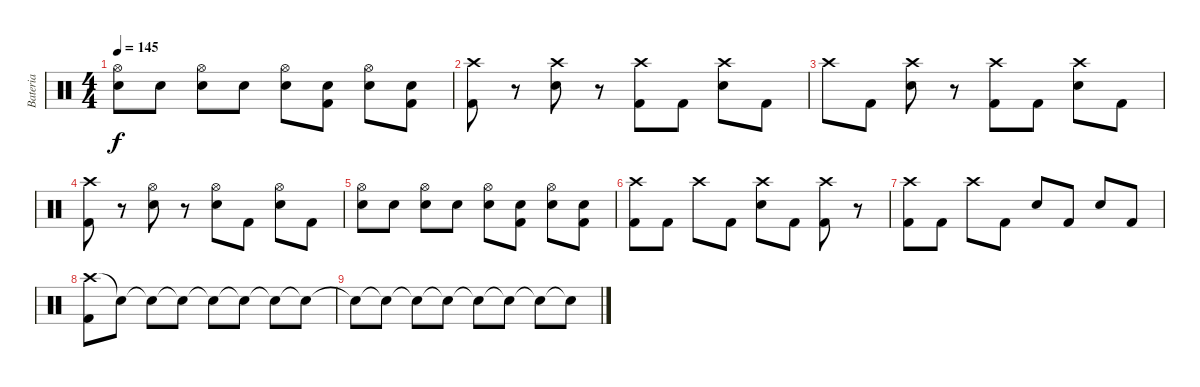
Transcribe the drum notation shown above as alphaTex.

\track ("Bateria" "Bateria") {instrument percussion}
\staff {score}
\articulation defaults
\ts (4 4)
\tempo 145
\clef neutral
\ks c
("Hi-Hat (open)" "Electric Snare (hit)").8{dy f} "Snare (hit)".8 ("Hi-Hat (open)" "Electric Snare (hit)").8 "Snare (hit)".8 ("Hi-Hat (open)" "Electric Snare (hit)").8 ("Snare (hit)" "Kick (hit) 2").8 ("Hi-Hat (open)" "Electric Snare (hit)").8 ("Snare (hit)" "Kick (hit) 2").8 |
("Crash high (hit)" "Kick (hit) 2").8 r.8 ("Crash high (hit)" "Electric Snare (hit)").8 r.8 ("Crash high (hit)" "Kick (hit) 2").8 "Kick (hit) 2".8 ("Crash high (hit)" "Electric Snare (hit)").8 "Kick (hit) 2".8 |
"Crash high (hit)".8 "Kick (hit) 2".8 ("Crash high (hit)" "Electric Snare (hit)").8 r.8 ("Crash high (hit)" "Kick (hit) 2").8 "Kick (hit) 2".8 ("Crash high (hit)" "Electric Snare (hit)").8 "Kick (hit) 2".8 |
("Crash high (hit)" "Kick (hit) 2").8 r.8 ("Hi-Hat (open)" "Electric Snare (hit)").8 r.8 ("Hi-Hat (open)" "Electric Snare (hit)").8 "Kick (hit) 2".8 ("Hi-Hat (open)" "Electric Snare (hit)").8 "Kick (hit) 2".8 |
("Hi-Hat (open)" "Electric Snare (hit)").8 "Snare (hit)".8 ("Hi-Hat (open)" "Electric Snare (hit)").8 "Snare (hit)".8 ("Hi-Hat (open)" "Electric Snare (hit)").8 ("Snare (hit)" "Kick (hit) 2").8 ("Hi-Hat (open)" "Electric Snare (hit)").8 ("Snare (hit)" "Kick (hit) 2").8 |
("Crash high (hit)" "Kick (hit) 2").8 "Kick (hit) 2".8 "Crash high (hit)".8 "Kick (hit) 2".8 ("Crash high (hit)" "Electric Snare (hit)").8 "Kick (hit) 2".8 ("Crash high (hit)" "Kick (hit) 2").8 r.8 |
("Crash high (hit)" "Kick (hit) 2").8 "Kick (hit) 2".8 "Crash high (hit)".8 "Kick (hit) 2".8 "Electric Snare (hit)".8 "Kick (hit) 2".8 "Electric Snare (hit)".8 "Kick (hit) 2".8 |
("Crash high (hit)" "Kick (hit) 2").8 "Snare (hit)"{t}.8 "Snare (hit)"{t}.8 "Snare (hit)"{t}.8 "Snare (hit)"{t}.8 "Snare (hit)"{t}.8 "Snare (hit)"{t}.8 "Snare (hit)"{t}.8 |
"Snare (hit)"{t}.8 "Snare (hit)"{t}.8 "Snare (hit)"{t}.8 "Snare (hit)"{t}.8 "Snare (hit)"{t}.8 "Snare (hit)"{t}.8 "Snare (hit)"{t}.8 "Snare (hit)"{t}.8
